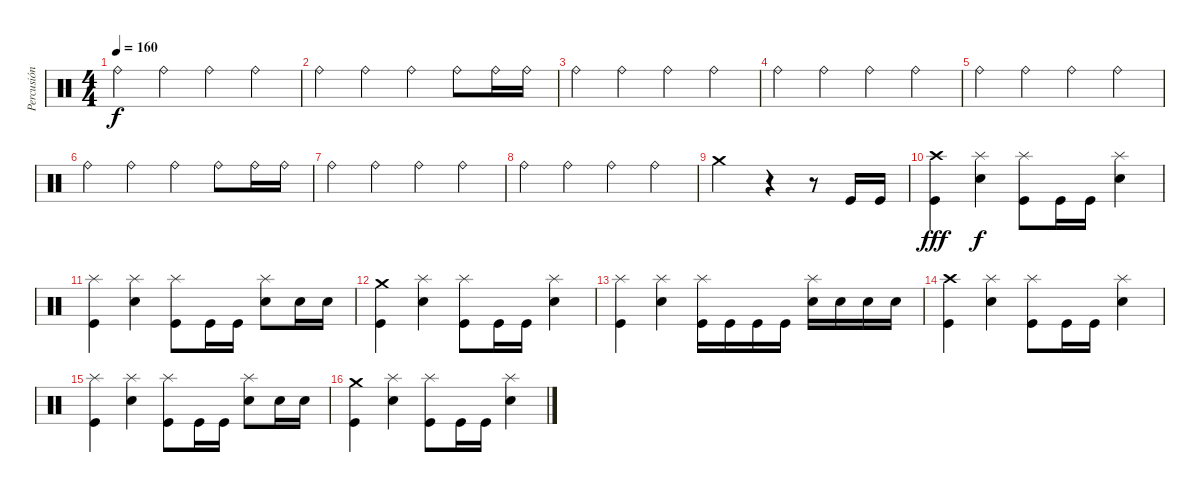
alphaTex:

\track ("Percusión" "Percusión") {instrument percussion}
\staff {score}
\articulation defaults
\ts (4 4)
\tempo 160
\clef neutral
\ks c "Ride (bell)".4{dy f} "Ride (bell)".4 "Ride (bell)".4 "Ride (bell)".4
|
"Ride (bell)".4 "Ride (bell)".4 "Ride (bell)".4 "Ride (bell)".8 "Ride (bell)".16 "Ride (bell)".16 |
"Ride (bell)".4 "Ride (bell)".4 "Ride (bell)".4 "Ride (bell)".4 |
"Ride (bell)".4 "Ride (bell)".4 "Ride (bell)".4 "Ride (bell)".4 |
"Ride (bell)".4 "Ride (bell)".4 "Ride (bell)".4 "Ride (bell)".4 |
"Ride (bell)".4 "Ride (bell)".4 "Ride (bell)".4 "Ride (bell)".8 "Ride (bell)".16 "Ride (bell)".16 |
"Ride (bell)".4 "Ride (bell)".4 "Ride (bell)".4 "Ride (bell)".4 |
"Ride (bell)".4 "Ride (bell)".4 "Ride (bell)".4 "Ride (bell)".4 |
"Crash medium (hit)".2 r.4 r.8 "Kick (hit)".16 "Kick (hit)".16 |
("Crash high (hit)" "Kick (hit)").4{dy fff} ("Splash (hit)" "Electric Snare (hit)").4{dy f} ("Splash (hit)" "Kick (hit)").8 "Kick (hit)".16 "Kick (hit)".16 ("Splash (hit)" "Electric Snare (hit)").4 |
("Splash (hit)" "Kick (hit)").4 ("Splash (hit)" "Electric Snare (hit)").4 ("Splash (hit)" "Kick (hit)").8 "Kick (hit)".16 "Kick (hit)".16 ("Splash (hit)" "Electric Snare (hit)").8 "Electric Snare (hit)".16 "Electric Snare (hit)".16 |
("Crash medium (hit)" "Kick (hit)").4 ("Splash (hit)" "Electric Snare (hit)").4 ("Splash (hit)" "Kick (hit)").8 "Kick (hit)".16 "Kick (hit)".16 ("Splash (hit)" "Electric Snare (hit)").4 |
("Splash (hit)" "Kick (hit)").4 ("Splash (hit)" "Electric Snare (hit)").4 ("Splash (hit)" "Kick (hit)").16 "Kick (hit)".16 "Kick (hit)".16 "Kick (hit)".16 ("Splash (hit)" "Electric Snare (hit)").16 "Electric Snare (hit)".16 "Electric Snare (hit)".16 "Electric Snare (hit)".16 |
("Crash high (hit)" "Kick (hit)").4 ("Splash (hit)" "Electric Snare (hit)").4 ("Splash (hit)" "Kick (hit)").8 "Kick (hit)".16 "Kick (hit)".16 ("Splash (hit)" "Electric Snare (hit)").4 |
("Splash (hit)" "Kick (hit)").4 ("Splash (hit)" "Electric Snare (hit)").4 ("Splash (hit)" "Kick (hit)").8 "Kick (hit)".16 "Kick (hit)".16 ("Splash (hit)" "Electric Snare (hit)").8 "Electric Snare (hit)".16 "Electric Snare (hit)".16 |
("Crash medium (hit)" "Kick (hit)").4 ("Splash (hit)" "Electric Snare (hit)").4 ("Splash (hit)" "Kick (hit)").8 "Kick (hit)".16 "Kick (hit)".16 ("Splash (hit)" "Electric Snare (hit)").4
